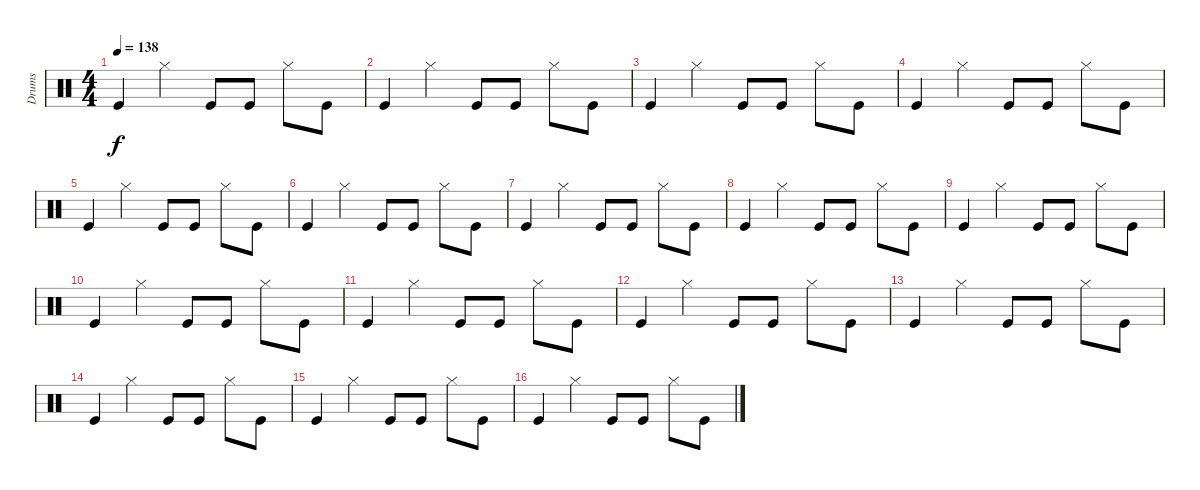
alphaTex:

\track ("Drums" "Drums") {instrument percussion}
\staff {score}
\articulation defaults
\ts (4 4)
\tempo 138
\clef neutral
\ks c "Kick (hit)".4{dy f} "Hi-Hat (closed)".4 "Kick (hit)".8 "Kick (hit)".8 "Hi-Hat (closed)".8 "Kick (hit)".8
|
"Kick (hit)".4 "Hi-Hat (closed)".4 "Kick (hit)".8 "Kick (hit)".8 "Hi-Hat (closed)".8 "Kick (hit)".8 |
"Kick (hit)".4 "Hi-Hat (closed)".4 "Kick (hit)".8 "Kick (hit)".8 "Hi-Hat (closed)".8 "Kick (hit)".8 |
"Kick (hit)".4 "Hi-Hat (closed)".4 "Kick (hit)".8 "Kick (hit)".8 "Hi-Hat (closed)".8 "Kick (hit)".8 |
"Kick (hit)".4 "Hi-Hat (closed)".4 "Kick (hit)".8 "Kick (hit)".8 "Hi-Hat (closed)".8 "Kick (hit)".8 |
"Kick (hit)".4 "Hi-Hat (closed)".4 "Kick (hit)".8 "Kick (hit)".8 "Hi-Hat (closed)".8 "Kick (hit)".8 |
"Kick (hit)".4 "Hi-Hat (closed)".4 "Kick (hit)".8 "Kick (hit)".8 "Hi-Hat (closed)".8 "Kick (hit)".8 |
"Kick (hit)".4 "Hi-Hat (closed)".4 "Kick (hit)".8 "Kick (hit)".8 "Hi-Hat (closed)".8 "Kick (hit)".8 |
"Kick (hit)".4 "Hi-Hat (closed)".4 "Kick (hit)".8 "Kick (hit)".8 "Hi-Hat (closed)".8 "Kick (hit)".8 |
"Kick (hit)".4 "Hi-Hat (closed)".4 "Kick (hit)".8 "Kick (hit)".8 "Hi-Hat (closed)".8 "Kick (hit)".8 |
"Kick (hit)".4 "Hi-Hat (closed)".4 "Kick (hit)".8 "Kick (hit)".8 "Hi-Hat (closed)".8 "Kick (hit)".8 |
"Kick (hit)".4 "Hi-Hat (closed)".4 "Kick (hit)".8 "Kick (hit)".8 "Hi-Hat (closed)".8 "Kick (hit)".8 |
"Kick (hit)".4 "Hi-Hat (closed)".4 "Kick (hit)".8 "Kick (hit)".8 "Hi-Hat (closed)".8 "Kick (hit)".8 |
"Kick (hit)".4 "Hi-Hat (closed)".4 "Kick (hit)".8 "Kick (hit)".8 "Hi-Hat (closed)".8 "Kick (hit)".8 |
"Kick (hit)".4 "Hi-Hat (closed)".4 "Kick (hit)".8 "Kick (hit)".8 "Hi-Hat (closed)".8 "Kick (hit)".8 |
"Kick (hit)".4 "Hi-Hat (closed)".4 "Kick (hit)".8 "Kick (hit)".8 "Hi-Hat (closed)".8 "Kick (hit)".8
